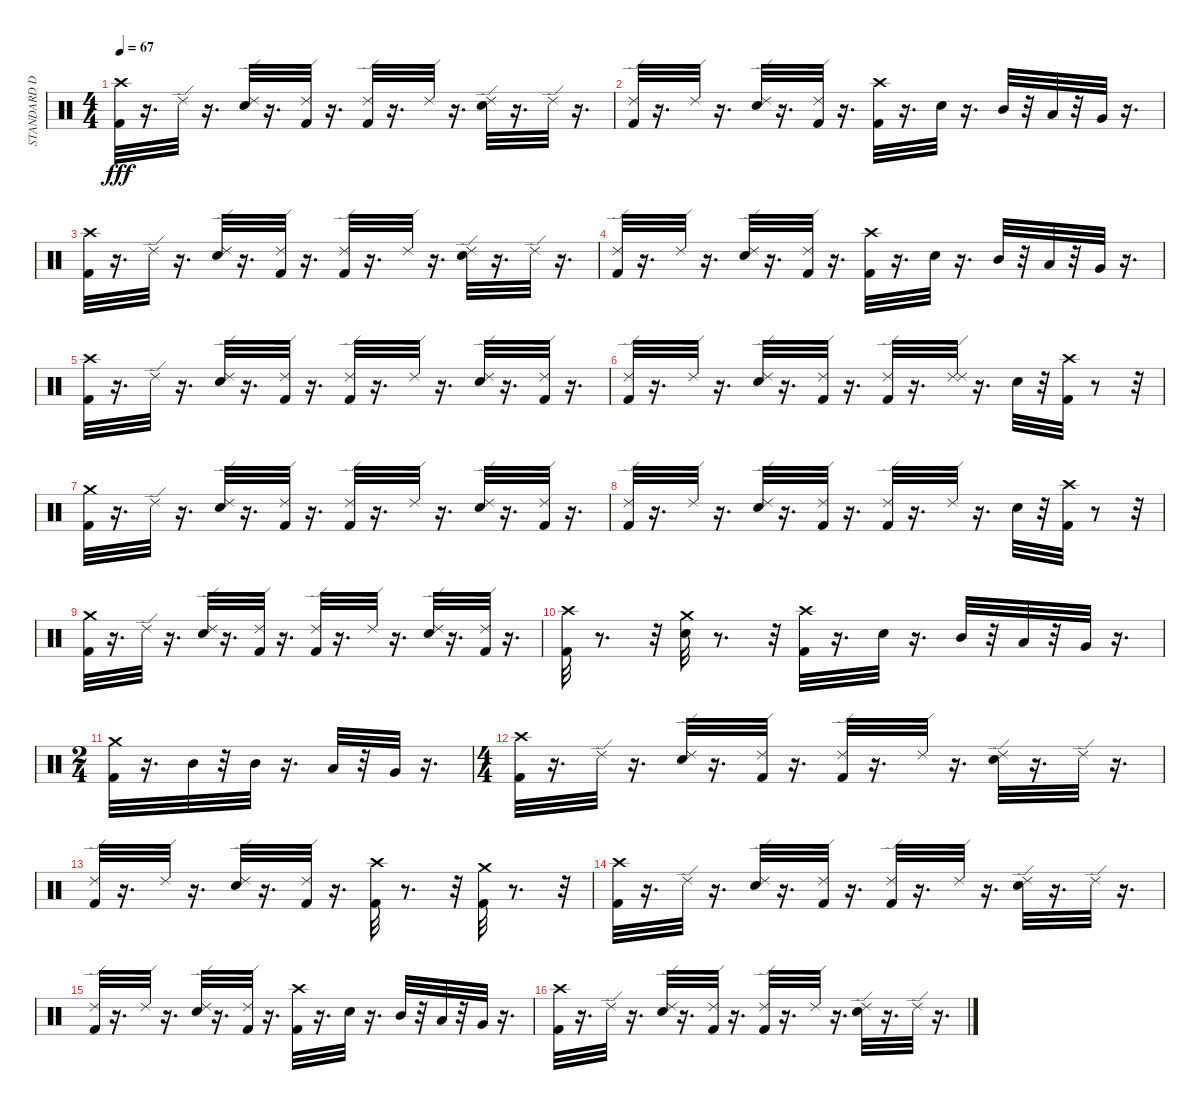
\track ("STANDARD DRUM" "STANDARD D") {instrument percussion}
\staff {score}
\articulation defaults
\ts (4 4)
\tempo 67
\clef neutral
\ks c
("Crash high (hit)" "Kick (hit) 2").32{dy fff} r.16{d} "Ride (edge) 2".32 r.16{d} ("Ride (edge) 2" "Snare (hit) 2").32 r.16{d} ("Ride (edge) 2" "Kick (hit) 2").32 r.16{d} ("Ride (edge) 2" "Kick (hit) 2").32 r.16{d} "Ride (edge) 2".32 r.16{d} ("Ride (edge) 2" "Snare (hit) 2").32 r.16{d} "Ride (edge) 2".32 r.16{d} |
("Ride (edge) 2" "Kick (hit) 2").32 r.16{d} "Ride (edge) 2".32 r.16{d} ("Ride (edge) 2" "Snare (hit) 2").32 r.16{d} ("Ride (edge) 2" "Kick (hit) 2").32 r.16{d} ("Crash high (hit)" "Kick (hit) 2").32 r.16{d} "Snare (hit) 2".32 r.16{d} "Mid Tom (hit)".32 r.32 "Low Tom (hit)".32 r.32 "Very Low Tom (hit)".32 r.16{d} |
("Kick (hit) 2" "Crash high (hit)").32 r.16{d} "Ride (edge) 2".32 r.16{d} ("Ride (edge) 2" "Snare (hit) 2").32 r.16{d} ("Ride (edge) 2" "Kick (hit) 2").32 r.16{d} ("Ride (edge) 2" "Kick (hit) 2").32 r.16{d} "Ride (edge) 2".32 r.16{d} ("Ride (edge) 2" "Snare (hit) 2").32 r.16{d} "Ride (edge) 2".32 r.16{d} |
("Ride (edge) 2" "Kick (hit) 2").32 r.16{d} "Ride (edge) 2".32 r.16{d} ("Ride (edge) 2" "Snare (hit) 2").32 r.16{d} ("Ride (edge) 2" "Kick (hit) 2").32 r.16{d} ("Crash high (hit)" "Kick (hit) 2").32 r.16{d} "Snare (hit) 2".32 r.16{d} "Mid Tom (hit)".32 r.32 "Low Tom (hit)".32 r.32 "Very Low Tom (hit)".32 r.16{d} |
("Crash high (hit)" "Kick (hit) 2").32 r.16{d} "Ride (edge) 2".32 r.16{d} ("Ride (edge) 2" "Snare (hit) 2").32 r.16{d} ("Ride (edge) 2" "Kick (hit) 2").32 r.16{d} ("Ride (edge) 2" "Kick (hit) 2").32 r.16{d} "Ride (edge) 2".32 r.16{d} ("Ride (edge) 2" "Snare (hit) 2").32 r.16{d} ("Ride (edge) 2" "Kick (hit) 2").32 r.16{d} |
("Ride (edge) 2" "Kick (hit) 2").32 r.16{d} "Ride (edge) 2".32 r.16{d} ("Ride (edge) 2" "Snare (hit) 2").32 r.16{d} ("Ride (edge) 2" "Kick (hit) 2").32 r.16{d} ("Ride (edge) 2" "Kick (hit) 2").32 r.16{d} ("Ride (edge) 2" "Ride (edge) 2").32 r.16{d} "Snare (hit) 2".32 r.32 ("Crash high (hit)" "Kick (hit) 2").32 r.8 r.32 |
("Crash medium (hit)" "Kick (hit) 2").32 r.16{d} "Ride (edge) 2".32 r.16{d} ("Ride (edge) 2" "Snare (hit) 2").32 r.16{d} ("Ride (edge) 2" "Kick (hit) 2").32 r.16{d} ("Ride (edge) 2" "Kick (hit) 2").32 r.16{d} "Ride (edge) 2".32 r.16{d} ("Ride (edge) 2" "Snare (hit) 2").32 r.16{d} ("Ride (edge) 2" "Kick (hit) 2").32 r.16{d} |
("Ride (edge) 2" "Kick (hit) 2").32 r.16{d} "Ride (edge) 2".32 r.16{d} ("Ride (edge) 2" "Snare (hit) 2").32 r.16{d} ("Ride (edge) 2" "Kick (hit) 2").32 r.16{d} ("Ride (edge) 2" "Kick (hit) 2").32 r.16{d} "Ride (edge) 2".32 r.16{d} "Snare (hit) 2".32 r.32 ("Crash high (hit)" "Kick (hit) 2").32 r.8 r.32 |
("Crash medium (hit)" "Kick (hit) 2").32 r.16{d} "Ride (edge) 2".32 r.16{d} ("Ride (edge) 2" "Snare (hit) 2").32 r.16{d} ("Ride (edge) 2" "Kick (hit) 2").32 r.16{d} ("Ride (edge) 2" "Kick (hit) 2").32 r.16{d} "Ride (edge) 2".32 r.16{d} ("Ride (edge) 2" "Snare (hit) 2").32 r.16{d} ("Ride (edge) 2" "Kick (hit) 2").32 r.16{d} |
("Kick (hit) 2" "Crash high (hit)").32 r.8{d} r.32 ("Snare (hit) 2" "Crash medium (hit)").32 r.8{d} r.32 ("Crash high (hit)" "Kick (hit) 2").32 r.16{d} "Snare (hit) 2".32 r.16{d} "Mid Tom (hit)".32 r.32 "Low Tom (hit)".32 r.32 "Very Low Tom (hit)".32 r.16{d} |
\ts (2 4)
("Crash medium (hit)" "Kick (hit) 2").32 r.16{d} "Mid Tom (hit)".32 r.32 "Mid Tom (hit)".32 r.16{d} "Low Tom (hit)".32 r.32 "Very Low Tom (hit)".32 r.16{d} |
\ts (4 4)
("Kick (hit) 2" "Crash high (hit)").32 r.16{d} "Ride (edge) 2".32 r.16{d} ("Ride (edge) 2" "Snare (hit) 2").32 r.16{d} ("Ride (edge) 2" "Kick (hit) 2").32 r.16{d} ("Ride (edge) 2" "Kick (hit) 2").32 r.16{d} "Ride (edge) 2".32 r.16{d} ("Ride (edge) 2" "Snare (hit) 2").32 r.16{d} "Ride (edge) 2".32 r.16{d} |
("Ride (edge) 2" "Kick (hit) 2").32 r.16{d} "Ride (edge) 2".32 r.16{d} ("Ride (edge) 2" "Snare (hit) 2").32 r.16{d} ("Ride (edge) 2" "Kick (hit) 2").32 r.16{d} ("Crash high (hit)" "Kick (hit) 2").32 r.8{d} r.32 ("Crash medium (hit)" "Kick (hit) 2").32 r.8{d} r.32 |
("Crash high (hit)" "Kick (hit) 2").32 r.16{d} "Ride (edge) 2".32 r.16{d} ("Ride (edge) 2" "Snare (hit) 2").32 r.16{d} ("Ride (edge) 2" "Kick (hit) 2").32 r.16{d} ("Ride (edge) 2" "Kick (hit) 2").32 r.16{d} "Ride (edge) 2".32 r.16{d} ("Ride (edge) 2" "Snare (hit) 2").32 r.16{d} "Ride (edge) 2".32 r.16{d} |
("Ride (edge) 2" "Kick (hit) 2").32 r.16{d} "Ride (edge) 2".32 r.16{d} ("Ride (edge) 2" "Snare (hit) 2").32 r.16{d} ("Ride (edge) 2" "Kick (hit) 2").32 r.16{d} ("Crash high (hit)" "Kick (hit) 2").32 r.16{d} "Snare (hit) 2".32 r.16{d} "Mid Tom (hit)".32 r.32 "Low Tom (hit)".32 r.32 "Very Low Tom (hit)".32 r.16{d} |
("Kick (hit) 2" "Crash high (hit)").32 r.16{d} "Ride (edge) 2".32 r.16{d} ("Ride (edge) 2" "Snare (hit) 2").32 r.16{d} ("Ride (edge) 2" "Kick (hit) 2").32 r.16{d} ("Ride (edge) 2" "Kick (hit) 2").32 r.16{d} "Ride (edge) 2".32 r.16{d} ("Ride (edge) 2" "Snare (hit) 2").32 r.16{d} "Ride (edge) 2".32 r.16{d}
